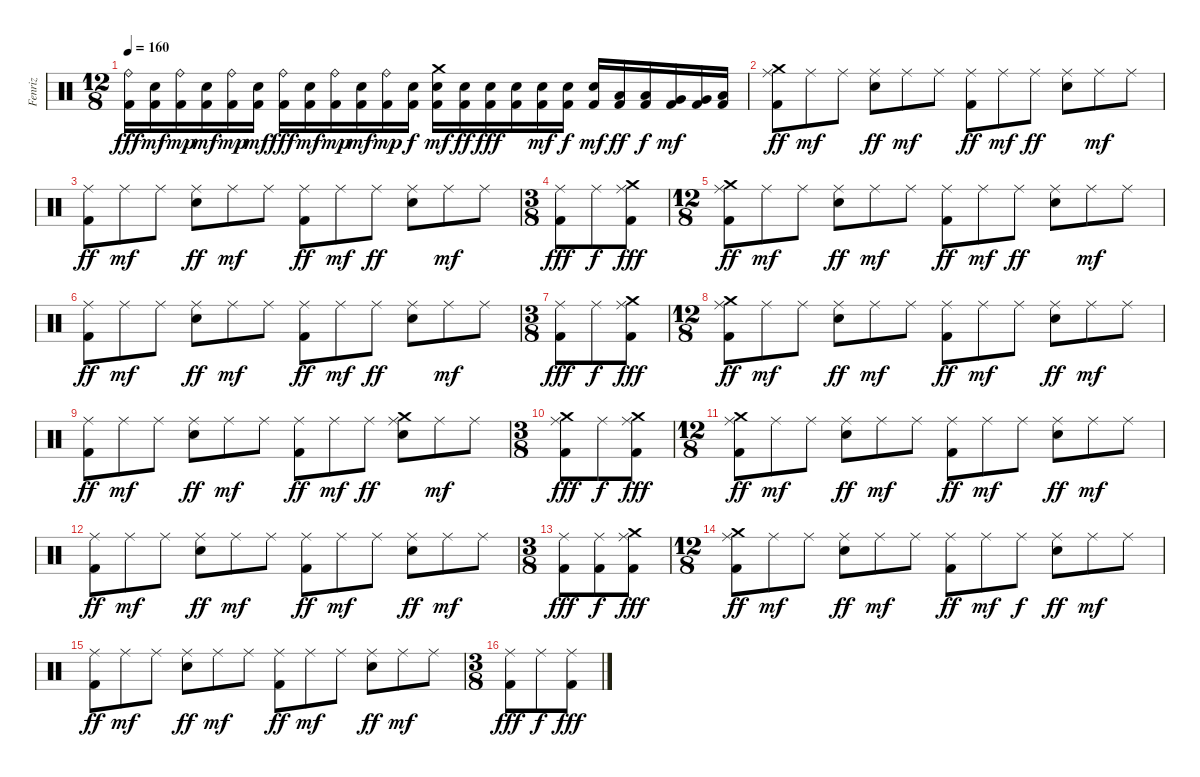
\track ("Fenriz" "Fenriz") {instrument percussion}
\staff {score}
\articulation defaults
\ts (12 8)
\tempo 160
\clef neutral
\ks c
("Kick (hit) 2" "Ride (bell)").16{dy fff} ("Kick (hit) 2" "Electric Snare (hit)").16{dy mf} ("Kick (hit) 2" "Ride (bell)").16{dy mp} ("Kick (hit) 2" "Electric Snare (hit)").16{dy mf} ("Kick (hit) 2" "Ride (bell)").16{dy mp} ("Kick (hit) 2" "Electric Snare (hit)").16{dy mf} ("Kick (hit) 2" "Ride (bell)").16{dy fff} ("Kick (hit) 2" "Electric Snare (hit)").16{dy mf} ("Kick (hit) 2" "Ride (bell)").16{dy mp} ("Kick (hit) 2" "Electric Snare (hit)").16{dy mf} ("Kick (hit) 2" "Ride (bell)").16{dy mp} ("Kick (hit) 2" "Electric Snare (hit)").16{dy f} ("Kick (hit) 2" "Crash medium (hit)" "Electric Snare (hit)").16{dy mf} ("Kick (hit) 2" "Electric Snare (hit)").16{dy ff} ("Kick (hit) 2" "Electric Snare (hit)").16{dy fff} ("Kick (hit) 2" "Electric Snare (hit)").16 ("Kick (hit) 2" "Electric Snare (hit)").16{dy mf} ("Kick (hit) 2" "Electric Snare (hit)").16{dy f} ("Kick (hit) 2" "Electric Snare (hit)").16{dy mf} ("Kick (hit) 2" "Low Tom (hit)").16{dy ff} ("Kick (hit) 2" "Low Tom (hit)").16{dy f} ("Kick (hit) 2" "Very Low Tom (hit)").16{dy mf} ("Kick (hit) 2" "Very Low Tom (hit)").16 ("Kick (hit) 2" "Low Floor Tom (hit)").16 |
("Kick (hit) 2" "Ride (middle)" "Crash medium (hit)").8{dy ff} "Ride (middle)".8{dy mf} "Ride (middle)".8 ("Electric Snare (hit)" "Ride (middle)").8{dy ff} "Ride (middle)".8{dy mf} "Ride (middle)".8 ("Kick (hit) 2" "Ride (middle)").8{dy ff} "Ride (middle)".8{dy mf} "Ride (middle)".8{dy ff} ("Electric Snare (hit)" "Ride (middle)").8 "Ride (middle)".8{dy mf} "Ride (middle)".8 |
("Kick (hit) 2" "Ride (middle)").8{dy ff} "Ride (middle)".8{dy mf} "Ride (middle)".8 ("Electric Snare (hit)" "Ride (middle)").8{dy ff} "Ride (middle)".8{dy mf} "Ride (middle)".8 ("Kick (hit) 2" "Ride (middle)").8{dy ff} "Ride (middle)".8{dy mf} "Ride (middle)".8{dy ff} ("Electric Snare (hit)" "Ride (middle)").8 "Ride (middle)".8{dy mf} "Ride (middle)".8 |
\ts (3 8)
("Kick (hit) 2" "Ride (middle)").8{dy fff} "Ride (middle)".8{dy f} ("Kick (hit) 2" "Crash medium (hit)" "Ride (middle)").8{dy fff} |
\ts (12 8)
("Kick (hit) 2" "Ride (middle)" "Crash medium (hit)").8{dy ff} "Ride (middle)".8{dy mf} "Ride (middle)".8 ("Electric Snare (hit)" "Ride (middle)").8{dy ff} "Ride (middle)".8{dy mf} "Ride (middle)".8 ("Kick (hit) 2" "Ride (middle)").8{dy ff} "Ride (middle)".8{dy mf} "Ride (middle)".8{dy ff} ("Electric Snare (hit)" "Ride (middle)").8 "Ride (middle)".8{dy mf} "Ride (middle)".8 |
("Kick (hit) 2" "Ride (middle)").8{dy ff} "Ride (middle)".8{dy mf} "Ride (middle)".8 ("Electric Snare (hit)" "Ride (middle)").8{dy ff} "Ride (middle)".8{dy mf} "Ride (middle)".8 ("Kick (hit) 2" "Ride (middle)").8{dy ff} "Ride (middle)".8{dy mf} "Ride (middle)".8{dy ff} ("Electric Snare (hit)" "Ride (middle)").8 "Ride (middle)".8{dy mf} "Ride (middle)".8 |
\ts (3 8)
("Kick (hit) 2" "Ride (middle)").8{dy fff} "Ride (middle)".8{dy f} ("Kick (hit) 2" "Crash medium (hit)" "Ride (middle)").8{dy fff} |
\ts (12 8)
("Kick (hit) 2" "Ride (middle)" "Crash medium (hit)").8{dy ff} "Ride (middle)".8{dy mf} "Ride (middle)".8 ("Electric Snare (hit)" "Ride (middle)").8{dy ff} "Ride (middle)".8{dy mf} "Ride (middle)".8 ("Kick (hit) 2" "Ride (middle)").8{dy ff} "Ride (middle)".8{dy mf} "Ride (middle)".8 ("Electric Snare (hit)" "Ride (middle)").8{dy ff} "Ride (middle)".8{dy mf} "Ride (middle)".8 |
("Kick (hit) 2" "Ride (middle)").8{dy ff} "Ride (middle)".8{dy mf} "Ride (middle)".8 ("Electric Snare (hit)" "Ride (middle)").8{dy ff} "Ride (middle)".8{dy mf} "Ride (middle)".8 ("Kick (hit) 2" "Ride (middle)").8{dy ff} "Ride (middle)".8{dy mf} "Ride (middle)".8{dy ff} ("Crash medium (hit)" "Electric Snare (hit)" "Ride (middle)").8 "Ride (middle)".8{dy mf} "Ride (middle)".8 |
\ts (3 8)
("Kick (hit) 2" "Crash medium (hit)" "Ride (middle)").8{dy fff} "Ride (middle)".8{dy f} ("Kick (hit) 2" "Crash medium (hit)" "Ride (middle)").8{dy fff} |
\ts (12 8)
("Kick (hit) 2" "Ride (middle)" "Crash medium (hit)").8{dy ff} "Ride (middle)".8{dy mf} "Ride (middle)".8 ("Electric Snare (hit)" "Ride (middle)").8{dy ff} "Ride (middle)".8{dy mf} "Ride (middle)".8 ("Kick (hit) 2" "Ride (middle)").8{dy ff} "Ride (middle)".8{dy mf} "Ride (middle)".8 ("Electric Snare (hit)" "Ride (middle)").8{dy ff} "Ride (middle)".8{dy mf} "Ride (middle)".8 |
("Kick (hit) 2" "Ride (middle)").8{dy ff} "Ride (middle)".8{dy mf} "Ride (middle)".8 ("Electric Snare (hit)" "Ride (middle)").8{dy ff} "Ride (middle)".8{dy mf} "Ride (middle)".8 ("Kick (hit) 2" "Ride (middle)").8{dy ff} "Ride (middle)".8{dy mf} "Ride (middle)".8 ("Electric Snare (hit)" "Ride (middle)").8{dy ff} "Ride (middle)".8{dy mf} "Ride (middle)".8 |
\ts (3 8)
("Kick (hit) 2" "Ride (middle)").8{dy fff} ("Kick (hit) 2" "Ride (middle)").8{dy f} ("Kick (hit) 2" "Crash medium (hit)" "Ride (middle)").8{dy fff} |
\ts (12 8)
("Kick (hit) 2" "Ride (middle)" "Crash medium (hit)").8{dy ff} "Ride (middle)".8{dy mf} "Ride (middle)".8 ("Electric Snare (hit)" "Ride (middle)").8{dy ff} "Ride (middle)".8{dy mf} "Ride (middle)".8 ("Kick (hit) 2" "Ride (middle)").8{dy ff} "Ride (middle)".8{dy mf} "Ride (middle)".8{dy f} ("Electric Snare (hit)" "Ride (middle)").8{dy ff} "Ride (middle)".8{dy mf} "Ride (middle)".8 |
("Kick (hit) 2" "Ride (middle)").8{dy ff} "Ride (middle)".8{dy mf} "Ride (middle)".8 ("Electric Snare (hit)" "Ride (middle)").8{dy ff} "Ride (middle)".8{dy mf} "Ride (middle)".8 ("Kick (hit) 2" "Ride (middle)").8{dy ff} "Ride (middle)".8{dy mf} "Ride (middle)".8 ("Electric Snare (hit)" "Ride (middle)").8{dy ff} "Ride (middle)".8{dy mf} "Ride (middle)".8 |
\ts (3 8)
("Kick (hit) 2" "Ride (middle)").8{dy fff} "Ride (middle)".8{dy f} ("Kick (hit) 2" "Ride (middle)").8{dy fff}
